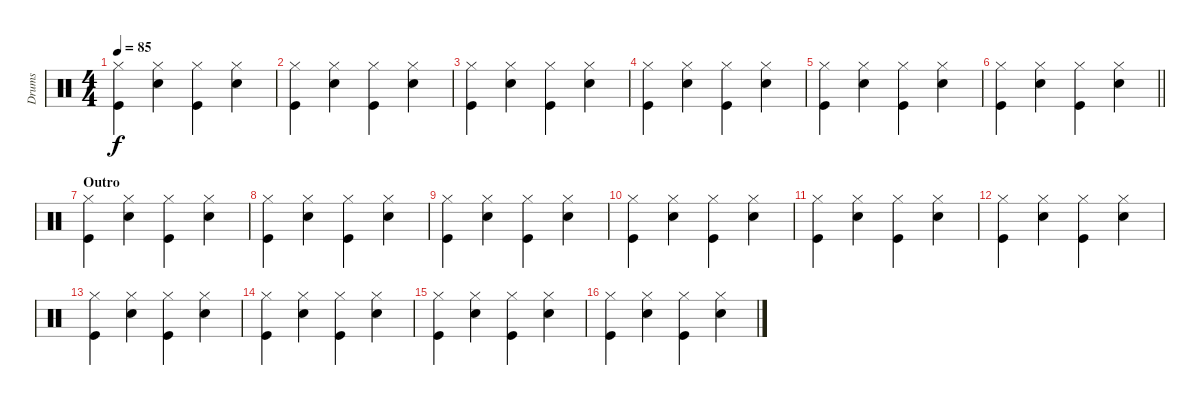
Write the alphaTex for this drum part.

\track ("Drums" "Drums") {instrument percussion}
\staff {score}
\articulation defaults
\ts (4 4)
\tempo 85
\clef neutral
\ks c
("Kick (hit)" "Hi-Hat (closed)").4{dy f} ("Snare (hit) 2" "Hi-Hat (closed)").4 ("Kick (hit)" "Hi-Hat (closed)").4 ("Snare (hit) 2" "Hi-Hat (closed)").4 |
("Kick (hit)" "Hi-Hat (closed)").4 ("Snare (hit) 2" "Hi-Hat (closed)").4 ("Kick (hit)" "Hi-Hat (closed)").4 ("Snare (hit) 2" "Hi-Hat (closed)").4 |
("Kick (hit)" "Hi-Hat (closed)").4 ("Snare (hit) 2" "Hi-Hat (closed)").4 ("Kick (hit)" "Hi-Hat (closed)").4 ("Snare (hit) 2" "Hi-Hat (closed)").4 |
("Kick (hit)" "Hi-Hat (closed)").4 ("Snare (hit) 2" "Hi-Hat (closed)").4 ("Kick (hit)" "Hi-Hat (closed)").4 ("Snare (hit) 2" "Hi-Hat (closed)").4 |
("Kick (hit)" "Hi-Hat (closed)").4 ("Snare (hit) 2" "Hi-Hat (closed)").4 ("Kick (hit)" "Hi-Hat (closed)").4 ("Snare (hit) 2" "Hi-Hat (closed)").4 |
\barLineRight lightlight
("Kick (hit)" "Hi-Hat (closed)").4 ("Snare (hit) 2" "Hi-Hat (closed)").4 ("Kick (hit)" "Hi-Hat (closed)").4 ("Snare (hit) 2" "Hi-Hat (closed)").4 |
\section ("" "Outro")
("Kick (hit)" "Hi-Hat (closed)").4 ("Snare (hit) 2" "Hi-Hat (closed)").4 ("Kick (hit)" "Hi-Hat (closed)").4 ("Snare (hit) 2" "Hi-Hat (closed)").4 |
("Kick (hit)" "Hi-Hat (closed)").4 ("Snare (hit) 2" "Hi-Hat (closed)").4 ("Kick (hit)" "Hi-Hat (closed)").4 ("Snare (hit) 2" "Hi-Hat (closed)").4 |
("Kick (hit)" "Hi-Hat (closed)").4 ("Snare (hit) 2" "Hi-Hat (closed)").4 ("Kick (hit)" "Hi-Hat (closed)").4 ("Snare (hit) 2" "Hi-Hat (closed)").4 |
("Kick (hit)" "Hi-Hat (closed)").4 ("Snare (hit) 2" "Hi-Hat (closed)").4 ("Kick (hit)" "Hi-Hat (closed)").4 ("Snare (hit) 2" "Hi-Hat (closed)").4 |
("Kick (hit)" "Hi-Hat (closed)").4 ("Snare (hit) 2" "Hi-Hat (closed)").4 ("Kick (hit)" "Hi-Hat (closed)").4 ("Snare (hit) 2" "Hi-Hat (closed)").4 |
("Kick (hit)" "Hi-Hat (closed)").4 ("Snare (hit) 2" "Hi-Hat (closed)").4 ("Kick (hit)" "Hi-Hat (closed)").4 ("Snare (hit) 2" "Hi-Hat (closed)").4 |
("Kick (hit)" "Hi-Hat (closed)").4 ("Snare (hit) 2" "Hi-Hat (closed)").4 ("Kick (hit)" "Hi-Hat (closed)").4 ("Snare (hit) 2" "Hi-Hat (closed)").4 |
("Kick (hit)" "Hi-Hat (closed)").4 ("Snare (hit) 2" "Hi-Hat (closed)").4 ("Kick (hit)" "Hi-Hat (closed)").4 ("Snare (hit) 2" "Hi-Hat (closed)").4 |
("Kick (hit)" "Hi-Hat (closed)").4 ("Snare (hit) 2" "Hi-Hat (closed)").4 ("Kick (hit)" "Hi-Hat (closed)").4 ("Snare (hit) 2" "Hi-Hat (closed)").4 |
("Kick (hit)" "Hi-Hat (closed)").4 ("Snare (hit) 2" "Hi-Hat (closed)").4 ("Kick (hit)" "Hi-Hat (closed)").4 ("Snare (hit) 2" "Hi-Hat (closed)").4
